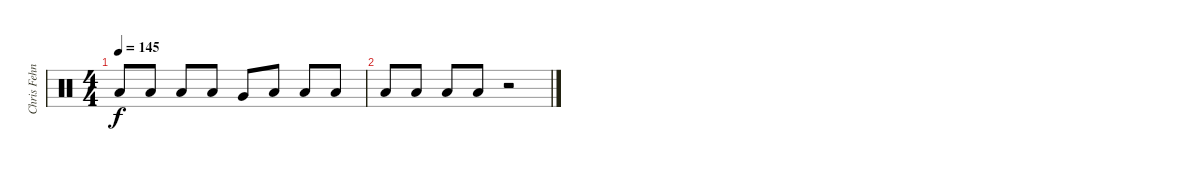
\track ("Chris Fehn" "Chris Fehn") {instrument percussion}
\staff {score}
\articulation defaults
\ts (4 4)
\tempo 145
\clef neutral
\ks c "Low Floor Tom (hit)".8{dy f} "Low Floor Tom (hit)".8 "Low Floor Tom (hit)".8 "Low Floor Tom (hit)".8 "Very Low Tom (hit)".8 "Low Floor Tom (hit)".8 "Low Floor Tom (hit)".8 "Low Floor Tom (hit)".8
|
"Low Floor Tom (hit)".8 "Low Floor Tom (hit)".8 "Low Floor Tom (hit)".8 "Low Floor Tom (hit)".8 r.2
